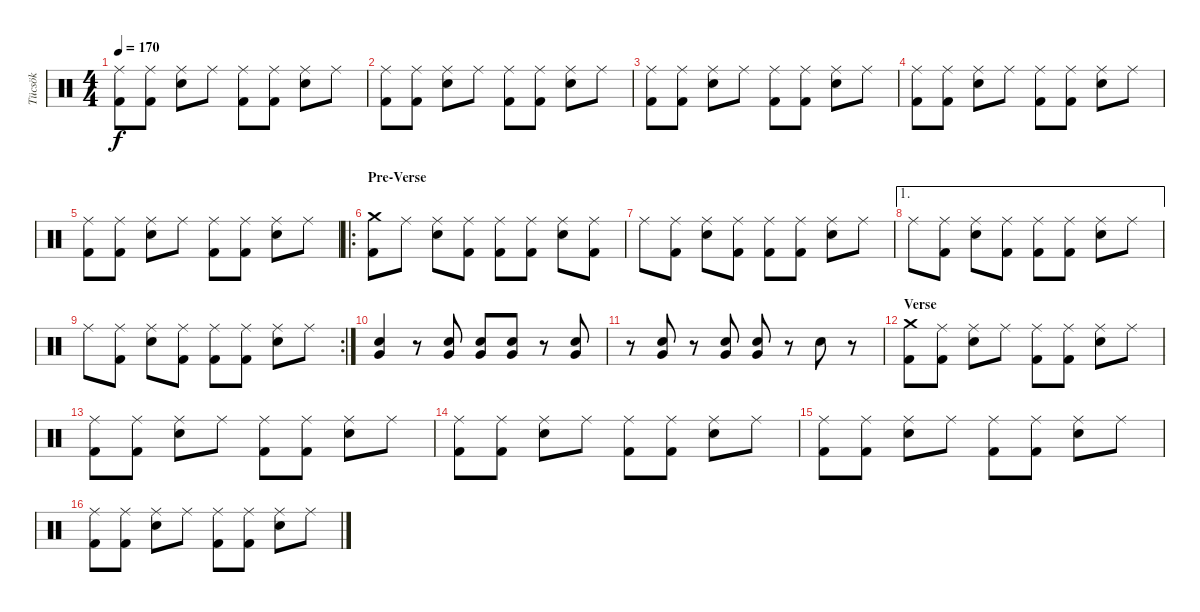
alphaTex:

\track ("Tücsök" "Tücsök") {instrument percussion}
\staff {score}
\articulation defaults
\ts (4 4)
\tempo 170
\clef neutral
\ks c
("Ride (middle)" "Kick (hit) 2").8{dy f} ("Ride (middle)" "Kick (hit) 2").8 ("Ride (middle)" "Electric Snare (hit)").8 "Ride (middle)".8 ("Ride (middle)" "Kick (hit) 2").8 ("Ride (middle)" "Kick (hit) 2").8 ("Ride (middle)" "Electric Snare (hit)").8 "Ride (middle)".8 |
("Ride (middle)" "Kick (hit) 2").8 ("Ride (middle)" "Kick (hit) 2").8 ("Ride (middle)" "Electric Snare (hit)").8 "Ride (middle)".8 ("Ride (middle)" "Kick (hit) 2").8 ("Ride (middle)" "Kick (hit) 2").8 ("Ride (middle)" "Electric Snare (hit)").8 "Ride (middle)".8 |
("Ride (middle)" "Kick (hit) 2").8 ("Ride (middle)" "Kick (hit) 2").8 ("Ride (middle)" "Electric Snare (hit)").8 "Ride (middle)".8 ("Ride (middle)" "Kick (hit) 2").8 ("Ride (middle)" "Kick (hit) 2").8 ("Ride (middle)" "Electric Snare (hit)").8 "Ride (middle)".8 |
("Ride (middle)" "Kick (hit) 2").8 ("Ride (middle)" "Kick (hit) 2").8 ("Ride (middle)" "Electric Snare (hit)").8 "Ride (middle)".8 ("Ride (middle)" "Kick (hit) 2").8 ("Ride (middle)" "Kick (hit) 2").8 ("Ride (middle)" "Electric Snare (hit)").8 "Ride (middle)".8 |
("Ride (middle)" "Kick (hit) 2").8 ("Ride (middle)" "Kick (hit) 2").8 ("Ride (middle)" "Electric Snare (hit)").8 "Ride (middle)".8 ("Ride (middle)" "Kick (hit) 2").8 ("Ride (middle)" "Kick (hit) 2").8 ("Ride (middle)" "Electric Snare (hit)").8 "Ride (middle)".8 |
\ro
\section ("" "Pre-Verse ")
("Crash medium (hit)" "Kick (hit) 2").8 "Ride (middle)".8 ("Ride (middle)" "Electric Snare (hit)").8 ("Ride (middle)" "Kick (hit) 2").8 ("Ride (middle)" "Kick (hit) 2").8 ("Ride (middle)" "Kick (hit) 2").8 ("Ride (middle)" "Electric Snare (hit)").8 ("Ride (middle)" "Kick (hit) 2").8 |
"Ride (middle)".8 ("Ride (middle)" "Kick (hit) 2").8 ("Ride (middle)" "Electric Snare (hit)").8 ("Ride (middle)" "Kick (hit) 2").8 ("Ride (middle)" "Kick (hit) 2").8 ("Ride (middle)" "Kick (hit) 2").8 ("Ride (middle)" "Electric Snare (hit)").8 "Ride (middle)".8 |
\ae 1 "Ride (middle)".8
("Ride (middle)" "Kick (hit) 2").8 ("Ride (middle)" "Electric Snare (hit)").8 ("Ride (middle)" "Kick (hit) 2").8 ("Ride (middle)" "Kick (hit) 2").8 ("Ride (middle)" "Kick (hit) 2").8 ("Ride (middle)" "Electric Snare (hit)").8 "Ride (middle)".8 |
\rc 2 "Ride (middle)".8
("Ride (middle)" "Kick (hit) 2").8 ("Ride (middle)" "Electric Snare (hit)").8 ("Ride (middle)" "Kick (hit) 2").8 ("Ride (middle)" "Kick (hit) 2").8 ("Ride (middle)" "Kick (hit) 2").8 ("Ride (middle)" "Electric Snare (hit)").8 "Ride (middle)".8 |
("Electric Snare (hit)" "Very Low Tom (hit)").4 r.8 ("Electric Snare (hit)" "Very Low Tom (hit)").8 ("Electric Snare (hit)" "Very Low Tom (hit)").8 ("Electric Snare (hit)" "Very Low Tom (hit)").8 r.8 ("Electric Snare (hit)" "Very Low Tom (hit)").8 |
r.8 ("Electric Snare (hit)" "Very Low Tom (hit)").8 r.8 ("Electric Snare (hit)" "Very Low Tom (hit)").8 ("Electric Snare (hit)" "Very Low Tom (hit)").8 r.8 "Snare (hit) 2".8 r.8 |
\section ("" "Verse")
("Crash medium (hit)" "Kick (hit) 2").8 ("Ride (middle)" "Kick (hit) 2").8 ("Ride (middle)" "Electric Snare (hit)").8 "Ride (middle)".8 ("Ride (middle)" "Kick (hit) 2").8 ("Ride (middle)" "Kick (hit) 2").8 ("Ride (middle)" "Electric Snare (hit)").8 "Ride (middle)".8 |
("Ride (middle)" "Kick (hit) 2").8 ("Ride (middle)" "Kick (hit) 2").8 ("Ride (middle)" "Electric Snare (hit)").8 "Ride (middle)".8 ("Ride (middle)" "Kick (hit) 2").8 ("Ride (middle)" "Kick (hit) 2").8 ("Ride (middle)" "Electric Snare (hit)").8 "Ride (middle)".8 |
("Ride (middle)" "Kick (hit) 2").8 ("Ride (middle)" "Kick (hit) 2").8 ("Ride (middle)" "Electric Snare (hit)").8 "Ride (middle)".8 ("Ride (middle)" "Kick (hit) 2").8 ("Ride (middle)" "Kick (hit) 2").8 ("Ride (middle)" "Electric Snare (hit)").8 "Ride (middle)".8 |
("Ride (middle)" "Kick (hit) 2").8 ("Ride (middle)" "Kick (hit) 2").8 ("Ride (middle)" "Electric Snare (hit)").8 "Ride (middle)".8 ("Ride (middle)" "Kick (hit) 2").8 ("Ride (middle)" "Kick (hit) 2").8 ("Ride (middle)" "Electric Snare (hit)").8 "Ride (middle)".8 |
("Ride (middle)" "Kick (hit) 2").8 ("Ride (middle)" "Kick (hit) 2").8 ("Ride (middle)" "Electric Snare (hit)").8 "Ride (middle)".8 ("Ride (middle)" "Kick (hit) 2").8 ("Ride (middle)" "Kick (hit) 2").8 ("Ride (middle)" "Electric Snare (hit)").8 "Ride (middle)".8
